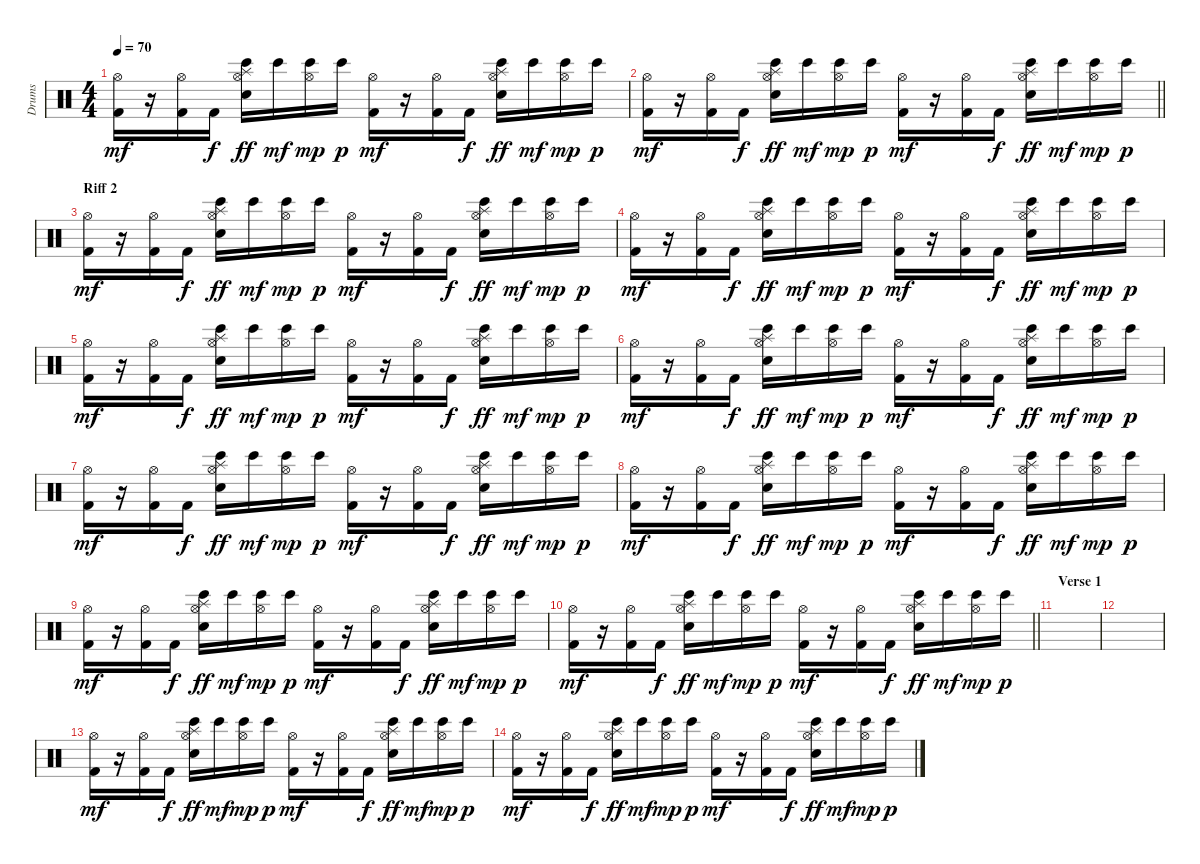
\track ("Drums" "Drums") {instrument percussion}
\staff {score}
\articulation defaults
\ts (4 4)
\tempo 70
\clef neutral
\ks c
("Hi-Hat (open)" "Kick (hit) 2").16{dy mf} r.16 ("Hi-Hat (open)" "Kick (hit) 2").16 "Kick (hit) 2".16{dy f} ("Hi-Hat (open)" "Splash (hit)" "Snare (hit) 2" "Bongo High (hit)").16{dy ff} "Bongo High (hit)".16{dy mf} ("Hi-Hat (open)" "Bongo High (hit)").16{dy mp} "Bongo High (hit)".16{dy p} ("Hi-Hat (open)" "Kick (hit) 2").16{dy mf} r.16 ("Hi-Hat (open)" "Kick (hit) 2").16 "Kick (hit) 2".16{dy f} ("Hi-Hat (open)" "Splash (hit)" "Snare (hit) 2" "Bongo High (hit)").16{dy ff} "Bongo High (hit)".16{dy mf} ("Hi-Hat (open)" "Bongo High (hit)").16{dy mp} "Bongo High (hit)".16{dy p} |
\barLineRight lightlight
("Hi-Hat (open)" "Kick (hit) 2").16{dy mf} r.16 ("Hi-Hat (open)" "Kick (hit) 2").16 "Kick (hit) 2".16{dy f} ("Hi-Hat (open)" "Splash (hit)" "Snare (hit) 2" "Bongo High (hit)").16{dy ff} "Bongo High (hit)".16{dy mf} ("Hi-Hat (open)" "Bongo High (hit)").16{dy mp} "Bongo High (hit)".16{dy p} ("Hi-Hat (open)" "Kick (hit) 2").16{dy mf} r.16 ("Hi-Hat (open)" "Kick (hit) 2").16 "Kick (hit) 2".16{dy f} ("Hi-Hat (open)" "Splash (hit)" "Snare (hit) 2" "Bongo High (hit)").16{dy ff} "Bongo High (hit)".16{dy mf} ("Hi-Hat (open)" "Bongo High (hit)").16{dy mp} "Bongo High (hit)".16{dy p} |
\section ("" "Riff 2")
("Hi-Hat (open)" "Kick (hit) 2").16{dy mf} r.16 ("Hi-Hat (open)" "Kick (hit) 2").16 "Kick (hit) 2".16{dy f} ("Hi-Hat (open)" "Splash (hit)" "Snare (hit) 2" "Bongo High (hit)").16{dy ff} "Bongo High (hit)".16{dy mf} ("Hi-Hat (open)" "Bongo High (hit)").16{dy mp} "Bongo High (hit)".16{dy p} ("Hi-Hat (open)" "Kick (hit) 2").16{dy mf} r.16 ("Hi-Hat (open)" "Kick (hit) 2").16 "Kick (hit) 2".16{dy f} ("Hi-Hat (open)" "Splash (hit)" "Snare (hit) 2" "Bongo High (hit)").16{dy ff} "Bongo High (hit)".16{dy mf} ("Hi-Hat (open)" "Bongo High (hit)").16{dy mp} "Bongo High (hit)".16{dy p} |
("Hi-Hat (open)" "Kick (hit) 2").16{dy mf} r.16 ("Hi-Hat (open)" "Kick (hit) 2").16 "Kick (hit) 2".16{dy f} ("Hi-Hat (open)" "Splash (hit)" "Snare (hit) 2" "Bongo High (hit)").16{dy ff} "Bongo High (hit)".16{dy mf} ("Hi-Hat (open)" "Bongo High (hit)").16{dy mp} "Bongo High (hit)".16{dy p} ("Hi-Hat (open)" "Kick (hit) 2").16{dy mf} r.16 ("Hi-Hat (open)" "Kick (hit) 2").16 "Kick (hit) 2".16{dy f} ("Hi-Hat (open)" "Splash (hit)" "Snare (hit) 2" "Bongo High (hit)").16{dy ff} "Bongo High (hit)".16{dy mf} ("Hi-Hat (open)" "Bongo High (hit)").16{dy mp} "Bongo High (hit)".16{dy p} |
("Hi-Hat (open)" "Kick (hit) 2").16{dy mf} r.16 ("Hi-Hat (open)" "Kick (hit) 2").16 "Kick (hit) 2".16{dy f} ("Hi-Hat (open)" "Splash (hit)" "Snare (hit) 2" "Bongo High (hit)").16{dy ff} "Bongo High (hit)".16{dy mf} ("Hi-Hat (open)" "Bongo High (hit)").16{dy mp} "Bongo High (hit)".16{dy p} ("Hi-Hat (open)" "Kick (hit) 2").16{dy mf} r.16 ("Hi-Hat (open)" "Kick (hit) 2").16 "Kick (hit) 2".16{dy f} ("Hi-Hat (open)" "Splash (hit)" "Snare (hit) 2" "Bongo High (hit)").16{dy ff} "Bongo High (hit)".16{dy mf} ("Hi-Hat (open)" "Bongo High (hit)").16{dy mp} "Bongo High (hit)".16{dy p} |
("Hi-Hat (open)" "Kick (hit) 2").16{dy mf} r.16 ("Hi-Hat (open)" "Kick (hit) 2").16 "Kick (hit) 2".16{dy f} ("Hi-Hat (open)" "Splash (hit)" "Snare (hit) 2" "Bongo High (hit)").16{dy ff} "Bongo High (hit)".16{dy mf} ("Hi-Hat (open)" "Bongo High (hit)").16{dy mp} "Bongo High (hit)".16{dy p} ("Hi-Hat (open)" "Kick (hit) 2").16{dy mf} r.16 ("Hi-Hat (open)" "Kick (hit) 2").16 "Kick (hit) 2".16{dy f} ("Hi-Hat (open)" "Splash (hit)" "Snare (hit) 2" "Bongo High (hit)").16{dy ff} "Bongo High (hit)".16{dy mf} ("Hi-Hat (open)" "Bongo High (hit)").16{dy mp} "Bongo High (hit)".16{dy p} |
("Hi-Hat (open)" "Kick (hit) 2").16{dy mf} r.16 ("Hi-Hat (open)" "Kick (hit) 2").16 "Kick (hit) 2".16{dy f} ("Hi-Hat (open)" "Splash (hit)" "Snare (hit) 2" "Bongo High (hit)").16{dy ff} "Bongo High (hit)".16{dy mf} ("Hi-Hat (open)" "Bongo High (hit)").16{dy mp} "Bongo High (hit)".16{dy p} ("Hi-Hat (open)" "Kick (hit) 2").16{dy mf} r.16 ("Hi-Hat (open)" "Kick (hit) 2").16 "Kick (hit) 2".16{dy f} ("Hi-Hat (open)" "Splash (hit)" "Snare (hit) 2" "Bongo High (hit)").16{dy ff} "Bongo High (hit)".16{dy mf} ("Hi-Hat (open)" "Bongo High (hit)").16{dy mp} "Bongo High (hit)".16{dy p} |
("Hi-Hat (open)" "Kick (hit) 2").16{dy mf} r.16 ("Hi-Hat (open)" "Kick (hit) 2").16 "Kick (hit) 2".16{dy f} ("Hi-Hat (open)" "Splash (hit)" "Snare (hit) 2" "Bongo High (hit)").16{dy ff} "Bongo High (hit)".16{dy mf} ("Hi-Hat (open)" "Bongo High (hit)").16{dy mp} "Bongo High (hit)".16{dy p} ("Hi-Hat (open)" "Kick (hit) 2").16{dy mf} r.16 ("Hi-Hat (open)" "Kick (hit) 2").16 "Kick (hit) 2".16{dy f} ("Hi-Hat (open)" "Splash (hit)" "Snare (hit) 2" "Bongo High (hit)").16{dy ff} "Bongo High (hit)".16{dy mf} ("Hi-Hat (open)" "Bongo High (hit)").16{dy mp} "Bongo High (hit)".16{dy p} |
("Hi-Hat (open)" "Kick (hit) 2").16{dy mf} r.16 ("Hi-Hat (open)" "Kick (hit) 2").16 "Kick (hit) 2".16{dy f} ("Hi-Hat (open)" "Splash (hit)" "Snare (hit) 2" "Bongo High (hit)").16{dy ff} "Bongo High (hit)".16{dy mf} ("Hi-Hat (open)" "Bongo High (hit)").16{dy mp} "Bongo High (hit)".16{dy p} ("Hi-Hat (open)" "Kick (hit) 2").16{dy mf} r.16 ("Hi-Hat (open)" "Kick (hit) 2").16 "Kick (hit) 2".16{dy f} ("Hi-Hat (open)" "Splash (hit)" "Snare (hit) 2" "Bongo High (hit)").16{dy ff} "Bongo High (hit)".16{dy mf} ("Hi-Hat (open)" "Bongo High (hit)").16{dy mp} "Bongo High (hit)".16{dy p} |
\barLineRight lightlight
("Hi-Hat (open)" "Kick (hit) 2").16{dy mf} r.16 ("Hi-Hat (open)" "Kick (hit) 2").16 "Kick (hit) 2".16{dy f} ("Hi-Hat (open)" "Splash (hit)" "Snare (hit) 2" "Bongo High (hit)").16{dy ff} "Bongo High (hit)".16{dy mf} ("Hi-Hat (open)" "Bongo High (hit)").16{dy mp} "Bongo High (hit)".16{dy p} ("Hi-Hat (open)" "Kick (hit) 2").16{dy mf} r.16 ("Hi-Hat (open)" "Kick (hit) 2").16 "Kick (hit) 2".16{dy f} ("Hi-Hat (open)" "Splash (hit)" "Snare (hit) 2" "Bongo High (hit)").16{dy ff} "Bongo High (hit)".16{dy mf} ("Hi-Hat (open)" "Bongo High (hit)").16{dy mp} "Bongo High (hit)".16{dy p} |
\section ("" "Verse 1")
|
|
("Hi-Hat (open)" "Kick (hit) 2").16{dy mf} r.16 ("Hi-Hat (open)" "Kick (hit) 2").16 "Kick (hit) 2".16{dy f} ("Hi-Hat (open)" "Splash (hit)" "Snare (hit) 2" "Bongo High (hit)").16{dy ff} "Bongo High (hit)".16{dy mf} ("Hi-Hat (open)" "Bongo High (hit)").16{dy mp} "Bongo High (hit)".16{dy p} ("Hi-Hat (open)" "Kick (hit) 2").16{dy mf} r.16 ("Hi-Hat (open)" "Kick (hit) 2").16 "Kick (hit) 2".16{dy f} ("Hi-Hat (open)" "Splash (hit)" "Snare (hit) 2" "Bongo High (hit)").16{dy ff} "Bongo High (hit)".16{dy mf} ("Hi-Hat (open)" "Bongo High (hit)").16{dy mp} "Bongo High (hit)".16{dy p} |
("Hi-Hat (open)" "Kick (hit) 2").16{dy mf} r.16 ("Hi-Hat (open)" "Kick (hit) 2").16 "Kick (hit) 2".16{dy f} ("Hi-Hat (open)" "Splash (hit)" "Snare (hit) 2" "Bongo High (hit)").16{dy ff} "Bongo High (hit)".16{dy mf} ("Hi-Hat (open)" "Bongo High (hit)").16{dy mp} "Bongo High (hit)".16{dy p} ("Hi-Hat (open)" "Kick (hit) 2").16{dy mf} r.16 ("Hi-Hat (open)" "Kick (hit) 2").16 "Kick (hit) 2".16{dy f} ("Hi-Hat (open)" "Splash (hit)" "Snare (hit) 2" "Bongo High (hit)").16{dy ff} "Bongo High (hit)".16{dy mf} ("Hi-Hat (open)" "Bongo High (hit)").16{dy mp} "Bongo High (hit)".16{dy p}
